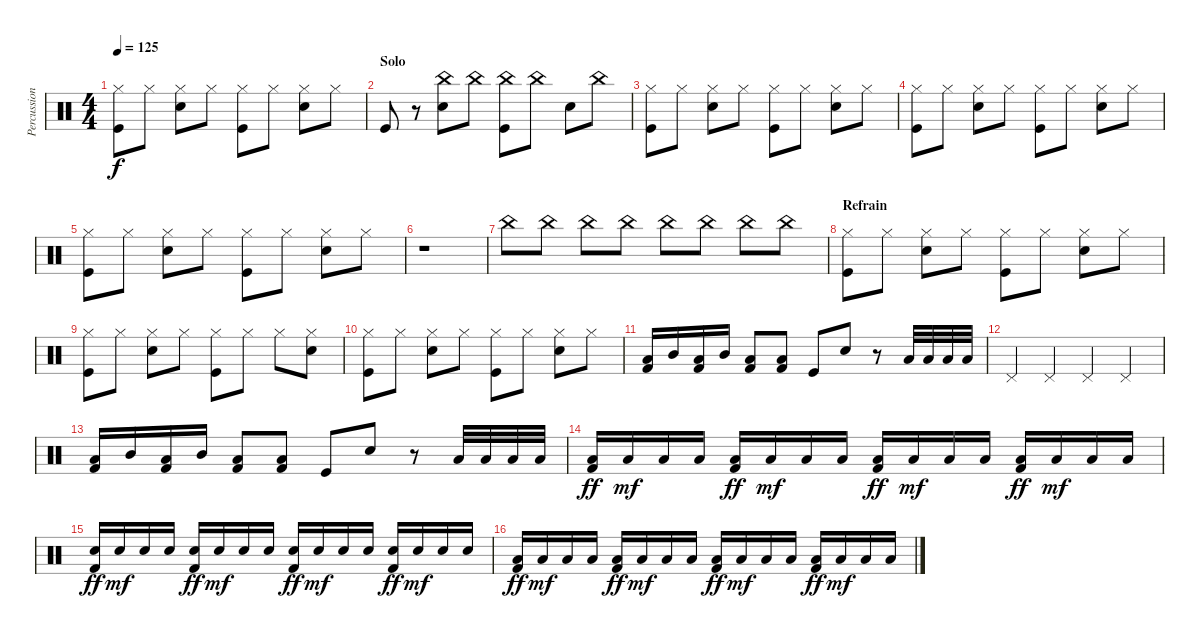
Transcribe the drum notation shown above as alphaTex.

\track ("Percussions" "Percussion") {instrument percussion}
\staff {score}
\articulation defaults
\ts (4 4)
\tempo 125
\clef neutral
\ks c
("Hi-Hat (closed)" "Kick (hit)").8{dy f} "Hi-Hat (closed)".8 ("Hi-Hat (closed)" "Snare (hit) 2").8 "Hi-Hat (closed)".8 ("Hi-Hat (closed)" "Kick (hit)").8 "Hi-Hat (closed)".8 ("Hi-Hat (closed)" "Snare (hit) 2").8 "Hi-Hat (closed)".8 |
\section ("" "Solo")
"Kick (hit)".8 r.8 ("China (hit)" "Snare (hit) 2").8 "China (hit)".8 ("China (hit)" "Kick (hit)").8 "China (hit)".8 "Snare (hit) 2".8 "China (hit)".8 |
("Hi-Hat (closed)" "Kick (hit)").8 "Hi-Hat (closed)".8 ("Hi-Hat (closed)" "Snare (hit) 2").8 "Hi-Hat (closed)".8 ("Hi-Hat (closed)" "Kick (hit)").8 "Hi-Hat (closed)".8 ("Hi-Hat (closed)" "Snare (hit) 2").8 "Hi-Hat (closed)".8 |
("Hi-Hat (closed)" "Kick (hit)").8 "Hi-Hat (closed)".8 ("Hi-Hat (closed)" "Snare (hit) 2").8 "Hi-Hat (closed)".8 ("Hi-Hat (closed)" "Kick (hit)").8 "Hi-Hat (closed)".8 ("Hi-Hat (closed)" "Snare (hit) 2").8 "Hi-Hat (closed)".8 |
("Hi-Hat (closed)" "Kick (hit)").8 "Hi-Hat (closed)".8 ("Hi-Hat (closed)" "Snare (hit) 2").8 "Hi-Hat (closed)".8 ("Hi-Hat (closed)" "Kick (hit)").8 "Hi-Hat (closed)".8 ("Hi-Hat (closed)" "Snare (hit) 2").8 "Hi-Hat (closed)".8 |
r.1 |
"China (hit)".8 "China (hit)".8 "China (hit)".8 "China (hit)".8 "China (hit)".8 "China (hit)".8 "China (hit)".8 "China (hit)".8 |
\section ("" "Refrain")
("Hi-Hat (closed)" "Kick (hit)").8 "Hi-Hat (closed)".8 ("Hi-Hat (closed)" "Snare (hit) 2").8 "Hi-Hat (closed)".8 ("Hi-Hat (closed)" "Kick (hit)").8 "Hi-Hat (closed)".8 ("Hi-Hat (closed)" "Snare (hit) 2").8 "Hi-Hat (closed)".8 |
("Hi-Hat (closed)" "Kick (hit)").8 "Hi-Hat (closed)".8 ("Hi-Hat (closed)" "Snare (hit) 2").8 "Hi-Hat (closed)".8 ("Hi-Hat (closed)" "Kick (hit)").8 "Hi-Hat (closed)".8 "Hi-Hat (closed)".8 ("Hi-Hat (closed)" "Snare (hit) 2").8 |
("Hi-Hat (closed)" "Kick (hit)").8 "Hi-Hat (closed)".8 ("Hi-Hat (closed)" "Snare (hit) 2").8 "Hi-Hat (closed)".8 ("Hi-Hat (closed)" "Kick (hit)").8 "Hi-Hat (closed)".8 ("Hi-Hat (closed)" "Snare (hit) 2").8 "Hi-Hat (closed)".8 |
("Low Tom (hit)" "Kick (hit) 2").16 "Mid Tom (hit)".16 ("Low Tom (hit)" "Kick (hit) 2").16 "Mid Tom (hit)".16 ("Low Tom (hit)" "Kick (hit) 2").8 ("Low Tom (hit)" "Kick (hit) 2").8 "Kick (hit)".8 "Snare (hit) 2".8 r.8 "Low Tom (hit)".32 "Low Tom (hit)".32 "Low Tom (hit)".32 "Low Tom (hit)".32 |
"Pedal Hi-Hat (hit)".4 "Pedal Hi-Hat (hit)".4 "Pedal Hi-Hat (hit)".4 "Pedal Hi-Hat (hit)".4 |
("Low Tom (hit)" "Kick (hit) 2").16 "Mid Tom (hit)".16 ("Low Tom (hit)" "Kick (hit) 2").16 "Mid Tom (hit)".16 ("Low Tom (hit)" "Kick (hit) 2").8 ("Low Tom (hit)" "Kick (hit) 2").8 "Kick (hit)".8 "Snare (hit) 2".8 r.8 "Low Tom (hit)".32 "Low Tom (hit)".32 "Low Tom (hit)".32 "Low Tom (hit)".32 |
("Low Tom (hit)" "Kick (hit) 2").16{dy ff} "Low Tom (hit)".16{dy mf} "Low Tom (hit)".16 "Low Tom (hit)".16 ("Low Tom (hit)" "Kick (hit) 2").16{dy ff} "Low Tom (hit)".16{dy mf} "Low Tom (hit)".16 "Low Tom (hit)".16 ("Low Tom (hit)" "Kick (hit) 2").16{dy ff} "Low Tom (hit)".16{dy mf} "Low Tom (hit)".16 "Low Tom (hit)".16 ("Low Tom (hit)" "Kick (hit) 2").16{dy ff} "Low Tom (hit)".16{dy mf} "Low Tom (hit)".16 "Low Tom (hit)".16 |
("Snare (hit) 2" "Kick (hit) 2").16{dy ff} "Snare (hit) 2".16{dy mf} "Snare (hit) 2".16 "Snare (hit) 2".16 ("Snare (hit) 2" "Kick (hit) 2").16{dy ff} "Snare (hit) 2".16{dy mf} "Snare (hit) 2".16 "Snare (hit) 2".16 ("Snare (hit) 2" "Kick (hit) 2").16{dy ff} "Snare (hit) 2".16{dy mf} "Snare (hit) 2".16 "Snare (hit) 2".16 ("Snare (hit) 2" "Kick (hit) 2").16{dy ff} "Snare (hit) 2".16{dy mf} "Snare (hit) 2".16 "Snare (hit) 2".16 |
("Low Tom (hit)" "Kick (hit) 2").16{dy ff} "Low Tom (hit)".16{dy mf} "Low Tom (hit)".16 "Low Tom (hit)".16 ("Low Tom (hit)" "Kick (hit) 2").16{dy ff} "Low Tom (hit)".16{dy mf} "Low Tom (hit)".16 "Low Tom (hit)".16 ("Low Tom (hit)" "Kick (hit) 2").16{dy ff} "Low Tom (hit)".16{dy mf} "Low Tom (hit)".16 "Low Tom (hit)".16 ("Low Tom (hit)" "Kick (hit) 2").16{dy ff} "Low Tom (hit)".16{dy mf} "Low Tom (hit)".16 "Low Tom (hit)".16
